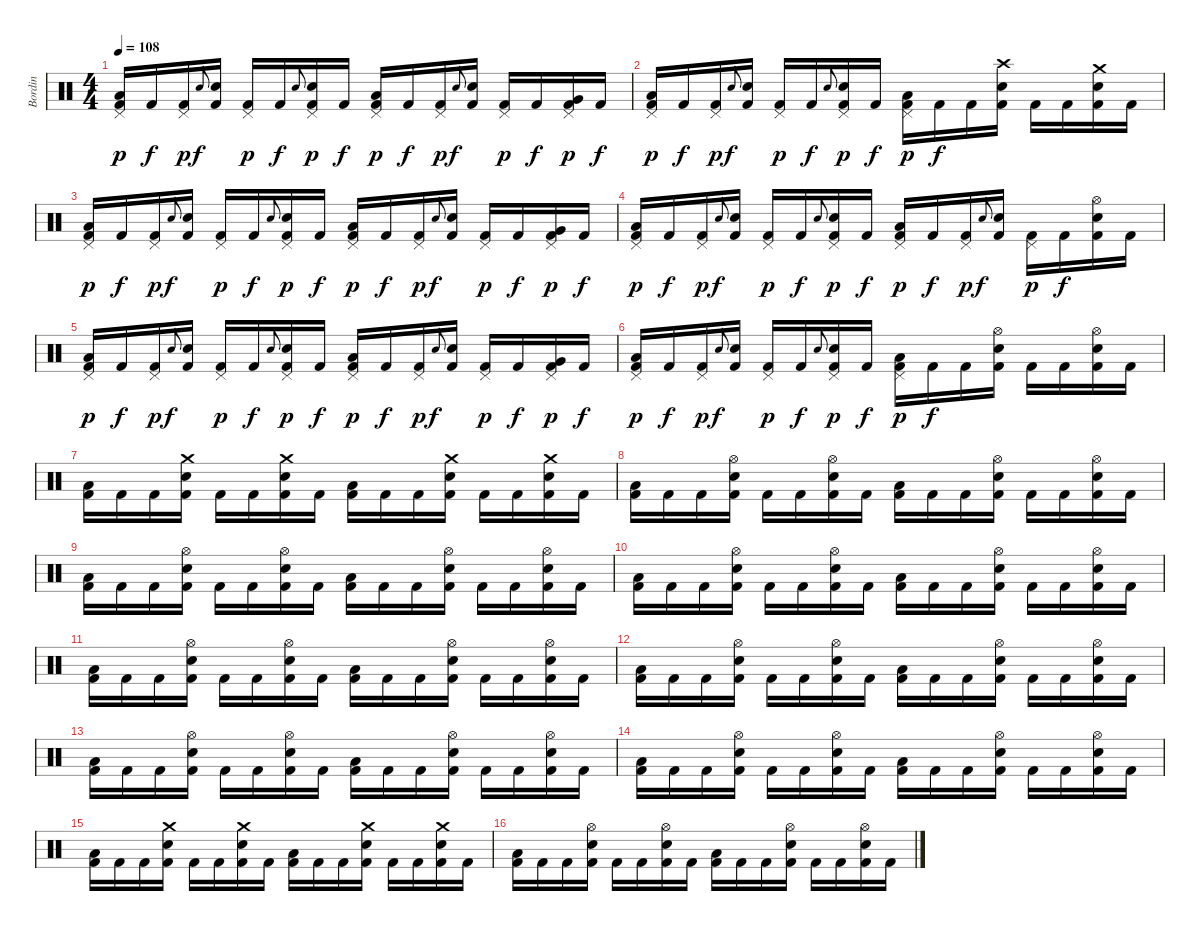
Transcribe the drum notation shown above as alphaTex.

\track ("Bordin" "Bordin") {instrument percussion}
\staff {score}
\articulation defaults
\ts (4 4)
\tempo 108
\clef neutral
\ks c
("Low Tom (hit)" "Pedal Hi-Hat (hit)" "Kick (hit) 2").16{dy p} "Kick (hit) 2".16{dy f} ("Pedal Hi-Hat (hit)" "Kick (hit) 2").16{dy p} "Electric Snare (hit)".8{gr onbeat dy f} ("Electric Snare (hit)" "Kick (hit) 2").16 ("Pedal Hi-Hat (hit)" "Kick (hit) 2").16{dy p} "Kick (hit) 2".16{dy f} "Electric Snare (hit)".8{gr onbeat} ("Pedal Hi-Hat (hit)" "Electric Snare (hit)" "Kick (hit) 2").16{dy p} "Kick (hit) 2".16{dy f} ("Low Tom (hit)" "Pedal Hi-Hat (hit)" "Kick (hit) 2").16{dy p} "Kick (hit) 2".16{dy f} ("Pedal Hi-Hat (hit)" "Kick (hit) 2").16{dy p} "Electric Snare (hit)".8{gr onbeat dy f} ("Electric Snare (hit)" "Kick (hit) 2").16 ("Pedal Hi-Hat (hit)" "Kick (hit) 2").16{dy p} "Kick (hit) 2".16{dy f} ("Very Low Tom (hit)" "Pedal Hi-Hat (hit)" "Kick (hit) 2").16{dy p} "Kick (hit) 2".16{dy f} |
("Low Tom (hit)" "Pedal Hi-Hat (hit)" "Kick (hit) 2").16{dy p} "Kick (hit) 2".16{dy f} ("Pedal Hi-Hat (hit)" "Kick (hit) 2").16{dy p} "Electric Snare (hit)".8{gr onbeat dy f} ("Electric Snare (hit)" "Kick (hit) 2").16 ("Pedal Hi-Hat (hit)" "Kick (hit) 2").16{dy p} "Kick (hit) 2".16{dy f} "Electric Snare (hit)".8{gr onbeat} ("Pedal Hi-Hat (hit)" "Electric Snare (hit)" "Kick (hit) 2").16{dy p} "Kick (hit) 2".16{dy f} ("Low Tom (hit)" "Pedal Hi-Hat (hit)" "Kick (hit) 2").16{dy p} "Kick (hit) 2".16{dy f} "Kick (hit) 2".16 ("Crash high (hit)" "Electric Snare (hit)" "Kick (hit) 2").16 "Kick (hit) 2".16 "Kick (hit) 2".16 ("Crash medium (hit)" "Electric Snare (hit)" "Kick (hit) 2").16 "Kick (hit) 2".16 |
("Low Tom (hit)" "Pedal Hi-Hat (hit)" "Kick (hit) 2").16{dy p} "Kick (hit) 2".16{dy f} ("Pedal Hi-Hat (hit)" "Kick (hit) 2").16{dy p} "Electric Snare (hit)".8{gr onbeat dy f} ("Electric Snare (hit)" "Kick (hit) 2").16 ("Pedal Hi-Hat (hit)" "Kick (hit) 2").16{dy p} "Kick (hit) 2".16{dy f} "Electric Snare (hit)".8{gr onbeat} ("Pedal Hi-Hat (hit)" "Electric Snare (hit)" "Kick (hit) 2").16{dy p} "Kick (hit) 2".16{dy f} ("Low Tom (hit)" "Pedal Hi-Hat (hit)" "Kick (hit) 2").16{dy p} "Kick (hit) 2".16{dy f} ("Pedal Hi-Hat (hit)" "Kick (hit) 2").16{dy p} "Electric Snare (hit)".8{gr onbeat dy f} ("Electric Snare (hit)" "Kick (hit) 2").16 ("Pedal Hi-Hat (hit)" "Kick (hit) 2").16{dy p} "Kick (hit) 2".16{dy f} ("Very Low Tom (hit)" "Pedal Hi-Hat (hit)" "Kick (hit) 2").16{dy p} "Kick (hit) 2".16{dy f} |
("Low Tom (hit)" "Pedal Hi-Hat (hit)" "Kick (hit) 2").16{dy p} "Kick (hit) 2".16{dy f} ("Pedal Hi-Hat (hit)" "Kick (hit) 2").16{dy p} "Electric Snare (hit)".8{gr onbeat dy f} ("Electric Snare (hit)" "Kick (hit) 2").16 ("Pedal Hi-Hat (hit)" "Kick (hit) 2").16{dy p} "Kick (hit) 2".16{dy f} "Electric Snare (hit)".8{gr onbeat} ("Pedal Hi-Hat (hit)" "Electric Snare (hit)" "Kick (hit) 2").16{dy p} "Kick (hit) 2".16{dy f} ("Low Tom (hit)" "Pedal Hi-Hat (hit)" "Kick (hit) 2").16{dy p} "Kick (hit) 2".16{dy f} ("Pedal Hi-Hat (hit)" "Kick (hit) 2").16{dy p} "Electric Snare (hit)".8{gr onbeat dy f} ("Electric Snare (hit)" "Kick (hit) 2").16 ("Pedal Hi-Hat (hit)" "Kick (hit) 2").16{dy p} "Kick (hit) 2".16{dy f} ("Hi-Hat (open)" "Electric Snare (hit)" "Kick (hit) 2").16 "Kick (hit) 2".16 |
("Low Tom (hit)" "Pedal Hi-Hat (hit)" "Kick (hit) 2").16{dy p} "Kick (hit) 2".16{dy f} ("Pedal Hi-Hat (hit)" "Kick (hit) 2").16{dy p} "Electric Snare (hit)".8{gr onbeat dy f} ("Electric Snare (hit)" "Kick (hit) 2").16 ("Pedal Hi-Hat (hit)" "Kick (hit) 2").16{dy p} "Kick (hit) 2".16{dy f} "Electric Snare (hit)".8{gr onbeat} ("Pedal Hi-Hat (hit)" "Electric Snare (hit)" "Kick (hit) 2").16{dy p} "Kick (hit) 2".16{dy f} ("Low Tom (hit)" "Pedal Hi-Hat (hit)" "Kick (hit) 2").16{dy p} "Kick (hit) 2".16{dy f} ("Pedal Hi-Hat (hit)" "Kick (hit) 2").16{dy p} "Electric Snare (hit)".8{gr onbeat dy f} ("Electric Snare (hit)" "Kick (hit) 2").16 ("Pedal Hi-Hat (hit)" "Kick (hit) 2").16{dy p} "Kick (hit) 2".16{dy f} ("Very Low Tom (hit)" "Pedal Hi-Hat (hit)" "Kick (hit) 2").16{dy p} "Kick (hit) 2".16{dy f} |
("Low Tom (hit)" "Pedal Hi-Hat (hit)" "Kick (hit) 2").16{dy p} "Kick (hit) 2".16{dy f} ("Pedal Hi-Hat (hit)" "Kick (hit) 2").16{dy p} "Electric Snare (hit)".8{gr onbeat dy f} ("Electric Snare (hit)" "Kick (hit) 2").16 ("Pedal Hi-Hat (hit)" "Kick (hit) 2").16{dy p} "Kick (hit) 2".16{dy f} "Electric Snare (hit)".8{gr onbeat} ("Pedal Hi-Hat (hit)" "Electric Snare (hit)" "Kick (hit) 2").16{dy p} "Kick (hit) 2".16{dy f} ("Low Tom (hit)" "Pedal Hi-Hat (hit)" "Kick (hit) 2").16{dy p} "Kick (hit) 2".16{dy f} "Kick (hit) 2".16 ("Hi-Hat (open)" "Electric Snare (hit)" "Kick (hit) 2").16 "Kick (hit) 2".16 "Kick (hit) 2".16 ("Hi-Hat (open)" "Electric Snare (hit)" "Kick (hit) 2").16 "Kick (hit) 2".16 |
("Low Tom (hit)" "Kick (hit) 2").16 "Kick (hit) 2".16 "Kick (hit) 2".16 ("Crash medium (hit)" "Electric Snare (hit)" "Kick (hit) 2").16 "Kick (hit) 2".16 "Kick (hit) 2".16 ("Crash medium (hit)" "Electric Snare (hit)" "Kick (hit) 2").16 "Kick (hit) 2".16 ("Low Tom (hit)" "Kick (hit) 2").16 "Kick (hit) 2".16 "Kick (hit) 2".16 ("Crash medium (hit)" "Electric Snare (hit)" "Kick (hit) 2").16 "Kick (hit) 2".16 "Kick (hit) 2".16 ("Crash medium (hit)" "Electric Snare (hit)" "Kick (hit) 2").16 "Kick (hit) 2".16 |
("Low Tom (hit)" "Kick (hit) 2").16 "Kick (hit) 2".16 "Kick (hit) 2".16 ("Hi-Hat (open)" "Electric Snare (hit)" "Kick (hit) 2").16 "Kick (hit) 2".16 "Kick (hit) 2".16 ("Hi-Hat (open)" "Electric Snare (hit)" "Kick (hit) 2").16 "Kick (hit) 2".16 ("Low Tom (hit)" "Kick (hit) 2").16 "Kick (hit) 2".16 "Kick (hit) 2".16 ("Hi-Hat (open)" "Electric Snare (hit)" "Kick (hit) 2").16 "Kick (hit) 2".16 "Kick (hit) 2".16 ("Hi-Hat (open)" "Electric Snare (hit)" "Kick (hit) 2").16 "Kick (hit) 2".16 |
("Low Tom (hit)" "Kick (hit) 2").16 "Kick (hit) 2".16 "Kick (hit) 2".16 ("Hi-Hat (open)" "Electric Snare (hit)" "Kick (hit) 2").16 "Kick (hit) 2".16 "Kick (hit) 2".16 ("Hi-Hat (open)" "Electric Snare (hit)" "Kick (hit) 2").16 "Kick (hit) 2".16 ("Low Tom (hit)" "Kick (hit) 2").16 "Kick (hit) 2".16 "Kick (hit) 2".16 ("Hi-Hat (open)" "Electric Snare (hit)" "Kick (hit) 2").16 "Kick (hit) 2".16 "Kick (hit) 2".16 ("Hi-Hat (open)" "Electric Snare (hit)" "Kick (hit) 2").16 "Kick (hit) 2".16 |
("Low Tom (hit)" "Kick (hit) 2").16 "Kick (hit) 2".16 "Kick (hit) 2".16 ("Hi-Hat (open)" "Electric Snare (hit)" "Kick (hit) 2").16 "Kick (hit) 2".16 "Kick (hit) 2".16 ("Hi-Hat (open)" "Electric Snare (hit)" "Kick (hit) 2").16 "Kick (hit) 2".16 ("Low Tom (hit)" "Kick (hit) 2").16 "Kick (hit) 2".16 "Kick (hit) 2".16 ("Hi-Hat (open)" "Electric Snare (hit)" "Kick (hit) 2").16 "Kick (hit) 2".16 "Kick (hit) 2".16 ("Hi-Hat (open)" "Electric Snare (hit)" "Kick (hit) 2").16 "Kick (hit) 2".16 |
("Low Tom (hit)" "Kick (hit) 2").16 "Kick (hit) 2".16 "Kick (hit) 2".16 ("Hi-Hat (open)" "Electric Snare (hit)" "Kick (hit) 2").16 "Kick (hit) 2".16 "Kick (hit) 2".16 ("Hi-Hat (open)" "Electric Snare (hit)" "Kick (hit) 2").16 "Kick (hit) 2".16 ("Low Tom (hit)" "Kick (hit) 2").16 "Kick (hit) 2".16 "Kick (hit) 2".16 ("Hi-Hat (open)" "Electric Snare (hit)" "Kick (hit) 2").16 "Kick (hit) 2".16 "Kick (hit) 2".16 ("Hi-Hat (open)" "Electric Snare (hit)" "Kick (hit) 2").16 "Kick (hit) 2".16 |
("Low Tom (hit)" "Kick (hit) 2").16 "Kick (hit) 2".16 "Kick (hit) 2".16 ("Hi-Hat (open)" "Electric Snare (hit)" "Kick (hit) 2").16 "Kick (hit) 2".16 "Kick (hit) 2".16 ("Hi-Hat (open)" "Electric Snare (hit)" "Kick (hit) 2").16 "Kick (hit) 2".16 ("Low Tom (hit)" "Kick (hit) 2").16 "Kick (hit) 2".16 "Kick (hit) 2".16 ("Hi-Hat (open)" "Electric Snare (hit)" "Kick (hit) 2").16 "Kick (hit) 2".16 "Kick (hit) 2".16 ("Hi-Hat (open)" "Electric Snare (hit)" "Kick (hit) 2").16 "Kick (hit) 2".16 |
("Low Tom (hit)" "Kick (hit) 2").16 "Kick (hit) 2".16 "Kick (hit) 2".16 ("Hi-Hat (open)" "Electric Snare (hit)" "Kick (hit) 2").16 "Kick (hit) 2".16 "Kick (hit) 2".16 ("Hi-Hat (open)" "Electric Snare (hit)" "Kick (hit) 2").16 "Kick (hit) 2".16 ("Low Tom (hit)" "Kick (hit) 2").16 "Kick (hit) 2".16 "Kick (hit) 2".16 ("Hi-Hat (open)" "Electric Snare (hit)" "Kick (hit) 2").16 "Kick (hit) 2".16 "Kick (hit) 2".16 ("Hi-Hat (open)" "Electric Snare (hit)" "Kick (hit) 2").16 "Kick (hit) 2".16 |
("Low Tom (hit)" "Kick (hit) 2").16 "Kick (hit) 2".16 "Kick (hit) 2".16 ("Hi-Hat (open)" "Electric Snare (hit)" "Kick (hit) 2").16 "Kick (hit) 2".16 "Kick (hit) 2".16 ("Hi-Hat (open)" "Electric Snare (hit)" "Kick (hit) 2").16 "Kick (hit) 2".16 ("Low Tom (hit)" "Kick (hit) 2").16 "Kick (hit) 2".16 "Kick (hit) 2".16 ("Hi-Hat (open)" "Electric Snare (hit)" "Kick (hit) 2").16 "Kick (hit) 2".16 "Kick (hit) 2".16 ("Hi-Hat (open)" "Electric Snare (hit)" "Kick (hit) 2").16 "Kick (hit) 2".16 |
("Low Tom (hit)" "Kick (hit) 2").16 "Kick (hit) 2".16 "Kick (hit) 2".16 ("Crash medium (hit)" "Electric Snare (hit)" "Kick (hit) 2").16 "Kick (hit) 2".16 "Kick (hit) 2".16 ("Crash medium (hit)" "Electric Snare (hit)" "Kick (hit) 2").16 "Kick (hit) 2".16 ("Low Tom (hit)" "Kick (hit) 2").16 "Kick (hit) 2".16 "Kick (hit) 2".16 ("Crash medium (hit)" "Electric Snare (hit)" "Kick (hit) 2").16 "Kick (hit) 2".16 "Kick (hit) 2".16 ("Crash medium (hit)" "Electric Snare (hit)" "Kick (hit) 2").16 "Kick (hit) 2".16 |
("Low Tom (hit)" "Kick (hit) 2").16 "Kick (hit) 2".16 "Kick (hit) 2".16 ("Hi-Hat (open)" "Electric Snare (hit)" "Kick (hit) 2").16 "Kick (hit) 2".16 "Kick (hit) 2".16 ("Hi-Hat (open)" "Electric Snare (hit)" "Kick (hit) 2").16 "Kick (hit) 2".16 ("Low Tom (hit)" "Kick (hit) 2").16 "Kick (hit) 2".16 "Kick (hit) 2".16 ("Hi-Hat (open)" "Electric Snare (hit)" "Kick (hit) 2").16 "Kick (hit) 2".16 "Kick (hit) 2".16 ("Hi-Hat (open)" "Electric Snare (hit)" "Kick (hit) 2").16 "Kick (hit) 2".16
